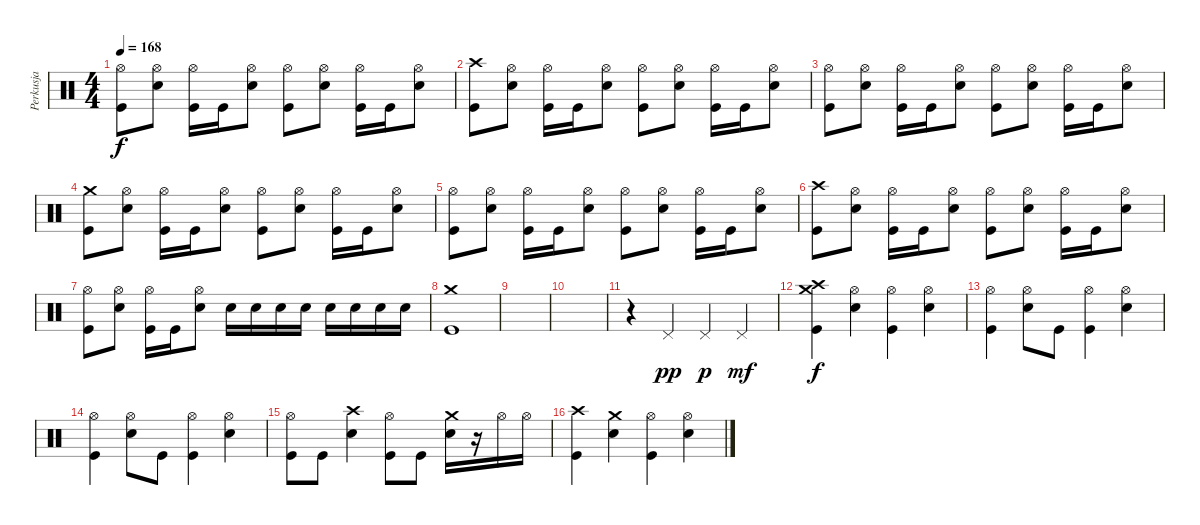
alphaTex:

\track ("Perkusja" "Perkusja") {instrument percussion}
\staff {score}
\articulation defaults
\ts (4 4)
\tempo 168
\clef neutral
\ks c
("Kick (hit)" "Hi-Hat (open)").8{dy f} ("Hi-Hat (open)" "Snare (hit) 2").8 ("Kick (hit)" "Hi-Hat (open)").16 "Kick (hit)".16 ("Hi-Hat (open)" "Snare (hit) 2").8 ("Kick (hit)" "Hi-Hat (open)").8 ("Hi-Hat (open)" "Snare (hit) 2").8 ("Kick (hit)" "Hi-Hat (open)").16 "Kick (hit)".16 ("Hi-Hat (open)" "Snare (hit) 2").8 |
("Kick (hit)" "Crash high (hit)").8 ("Hi-Hat (open)" "Snare (hit) 2").8 ("Kick (hit)" "Hi-Hat (open)").16 "Kick (hit)".16 ("Hi-Hat (open)" "Snare (hit) 2").8 ("Kick (hit)" "Hi-Hat (open)").8 ("Hi-Hat (open)" "Snare (hit) 2").8 ("Kick (hit)" "Hi-Hat (open)").16 "Kick (hit)".16 ("Hi-Hat (open)" "Snare (hit) 2").8 |
("Kick (hit)" "Hi-Hat (open)").8 ("Hi-Hat (open)" "Snare (hit) 2").8 ("Kick (hit)" "Hi-Hat (open)").16 "Kick (hit)".16 ("Hi-Hat (open)" "Snare (hit) 2").8 ("Kick (hit)" "Hi-Hat (open)").8 ("Hi-Hat (open)" "Snare (hit) 2").8 ("Kick (hit)" "Hi-Hat (open)").16 "Kick (hit)".16 ("Hi-Hat (open)" "Snare (hit) 2").8 |
("Kick (hit)" "Crash medium (hit)").8 ("Hi-Hat (open)" "Snare (hit) 2").8 ("Kick (hit)" "Hi-Hat (open)").16 "Kick (hit)".16 ("Hi-Hat (open)" "Snare (hit) 2").8 ("Kick (hit)" "Hi-Hat (open)").8 ("Hi-Hat (open)" "Snare (hit) 2").8 ("Kick (hit)" "Hi-Hat (open)").16 "Kick (hit)".16 ("Hi-Hat (open)" "Snare (hit) 2").8 |
("Kick (hit)" "Hi-Hat (open)").8 ("Hi-Hat (open)" "Snare (hit) 2").8 ("Kick (hit)" "Hi-Hat (open)").16 "Kick (hit)".16 ("Hi-Hat (open)" "Snare (hit) 2").8 ("Kick (hit)" "Hi-Hat (open)").8 ("Hi-Hat (open)" "Snare (hit) 2").8 ("Kick (hit)" "Hi-Hat (open)").16 "Kick (hit)".16 ("Hi-Hat (open)" "Snare (hit) 2").8 |
("Kick (hit)" "Crash high (hit)").8 ("Hi-Hat (open)" "Snare (hit) 2").8 ("Kick (hit)" "Hi-Hat (open)").16 "Kick (hit)".16 ("Hi-Hat (open)" "Snare (hit) 2").8 ("Kick (hit)" "Hi-Hat (open)").8 ("Hi-Hat (open)" "Snare (hit) 2").8 ("Kick (hit)" "Hi-Hat (open)").16 "Kick (hit)".16 ("Hi-Hat (open)" "Snare (hit) 2").8 |
("Kick (hit)" "Hi-Hat (open)").8 ("Hi-Hat (open)" "Snare (hit) 2").8 ("Kick (hit)" "Hi-Hat (open)").16 "Kick (hit)".16 ("Hi-Hat (open)" "Snare (hit) 2").8 "Snare (hit) 2".16 "Snare (hit) 2".16 "Snare (hit) 2".16 "Snare (hit) 2".16 "Snare (hit) 2".16 "Snare (hit) 2".16 "Snare (hit) 2".16 "Snare (hit) 2".16 |
("Kick (hit)" "Crash medium (hit)").1 |
|
|
r.4 "Pedal Hi-Hat (hit)".4{dy pp} "Pedal Hi-Hat (hit)".4{dy p} "Pedal Hi-Hat (hit)".4{dy mf} |
("Kick (hit)" "Crash high (hit)" "Crash medium (hit)").4{dy f} ("Hi-Hat (open)" "Snare (hit) 2").4 ("Kick (hit)" "Hi-Hat (open)").4 ("Hi-Hat (open)" "Snare (hit) 2").4 |
("Kick (hit)" "Hi-Hat (open)").4 ("Hi-Hat (open)" "Snare (hit) 2").8 "Kick (hit)".8 ("Kick (hit)" "Hi-Hat (open)").4 ("Hi-Hat (open)" "Snare (hit) 2").4 |
("Kick (hit)" "Hi-Hat (open)").4 ("Hi-Hat (open)" "Snare (hit) 2").8 "Kick (hit)".8 ("Kick (hit)" "Hi-Hat (open)").4 ("Hi-Hat (open)" "Snare (hit) 2").4 |
("Kick (hit)" "Hi-Hat (open)").8 "Kick (hit)".8 ("Crash high (hit)" "Snare (hit) 2").4 ("Kick (hit)" "Hi-Hat (open)").8 "Kick (hit)".8 ("Crash medium (hit)" "Snare (hit) 2").16 r.16 "Hi-Hat (open)".16 "Hi-Hat (open)".16 |
("Kick (hit)" "Crash high (hit)").4 ("Crash medium (hit)" "Snare (hit) 2").4 ("Kick (hit)" "Hi-Hat (open)").4 ("Hi-Hat (open)" "Snare (hit) 2").4
